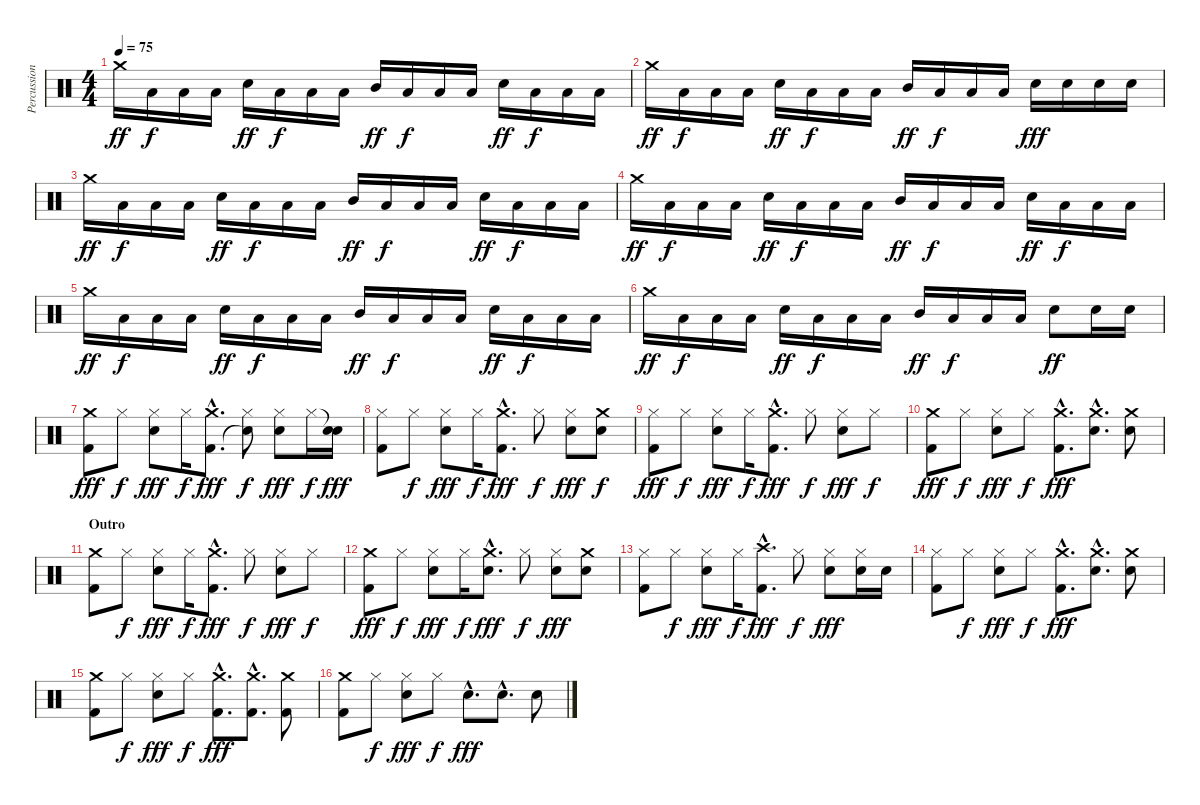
\track ("Percussion" "Percussion") {instrument percussion}
\staff {score}
\articulation defaults
\ts (4 4)
\tempo 75
\clef neutral
\ks c "Crash medium (hit)".16{dy ff} "Low Tom (hit)".16{dy f} "Low Tom (hit)".16 "Low Tom (hit)".16 "Electric Snare (hit)".16{dy ff} "Low Tom (hit)".16{dy f} "Low Tom (hit)".16 "Low Tom (hit)".16 "Mid Tom (hit)".16{dy ff} "Low Tom (hit)".16{dy f} "Low Tom (hit)".16 "Low Tom (hit)".16 "Electric Snare (hit)".16{dy ff} "Low Tom (hit)".16{dy f} "Low Tom (hit)".16 "Low Tom (hit)".16
|
"Crash medium (hit)".16{dy ff} "Low Tom (hit)".16{dy f} "Low Tom (hit)".16 "Low Tom (hit)".16 "Electric Snare (hit)".16{dy ff} "Low Tom (hit)".16{dy f} "Low Tom (hit)".16 "Low Tom (hit)".16 "Mid Tom (hit)".16{dy ff} "Low Tom (hit)".16{dy f} "Low Tom (hit)".16 "Low Tom (hit)".16 "Electric Snare (hit)".16{dy fff} "Electric Snare (hit)".16 "Electric Snare (hit)".16 "Electric Snare (hit)".16 |
"Crash medium (hit)".16{dy ff} "Low Tom (hit)".16{dy f} "Low Tom (hit)".16 "Low Tom (hit)".16 "Electric Snare (hit)".16{dy ff} "Low Tom (hit)".16{dy f} "Low Tom (hit)".16 "Low Tom (hit)".16 "Mid Tom (hit)".16{dy ff} "Low Tom (hit)".16{dy f} "Low Tom (hit)".16 "Low Tom (hit)".16 "Electric Snare (hit)".16{dy ff} "Low Tom (hit)".16{dy f} "Low Tom (hit)".16 "Low Tom (hit)".16 |
"Crash medium (hit)".16{dy ff} "Low Tom (hit)".16{dy f} "Low Tom (hit)".16 "Low Tom (hit)".16 "Electric Snare (hit)".16{dy ff} "Low Tom (hit)".16{dy f} "Low Tom (hit)".16 "Low Tom (hit)".16 "Mid Tom (hit)".16{dy ff} "Low Tom (hit)".16{dy f} "Low Tom (hit)".16 "Low Tom (hit)".16 "Electric Snare (hit)".16{dy ff} "Low Tom (hit)".16{dy f} "Low Tom (hit)".16 "Low Tom (hit)".16 |
"Crash medium (hit)".16{dy ff} "Low Tom (hit)".16{dy f} "Low Tom (hit)".16 "Low Tom (hit)".16 "Electric Snare (hit)".16{dy ff} "Low Tom (hit)".16{dy f} "Low Tom (hit)".16 "Low Tom (hit)".16 "Mid Tom (hit)".16{dy ff} "Low Tom (hit)".16{dy f} "Low Tom (hit)".16 "Low Tom (hit)".16 "Electric Snare (hit)".16{dy ff} "Low Tom (hit)".16{dy f} "Low Tom (hit)".16 "Low Tom (hit)".16 |
"Crash medium (hit)".16{dy ff} "Low Tom (hit)".16{dy f} "Low Tom (hit)".16 "Low Tom (hit)".16 "Electric Snare (hit)".16{dy ff} "Low Tom (hit)".16{dy f} "Low Tom (hit)".16 "Low Tom (hit)".16 "Mid Tom (hit)".16{dy ff} "Low Tom (hit)".16{dy f} "Low Tom (hit)".16 "Low Tom (hit)".16 "Electric Snare (hit)".8{dy ff} "Electric Snare (hit)".16 "Electric Snare (hit)".16 |
("Crash medium (hit)" "Kick (hit) 2").8{dy fff} "Hi-Hat (closed)".8{dy f} ("Hi-Hat (closed)" "Electric Snare (hit)").8{dy fff} "Hi-Hat (closed)".16{dy f} ("Crash medium (hit)" "Kick (hit) 2"{hac}).8{d dy fff} ("Hi-Hat (closed)" "Snare (hit)"{t}).8{dy f} ("Hi-Hat (closed)" "Electric Snare (hit)").8{dy fff} "Hi-Hat (closed)".16{dy f} ("Snare (hit)"{t} "Electric Snare (hit)").16{dy fff} |
("Hi-Hat (closed)" "Kick (hit) 2").8 "Hi-Hat (closed)".8{dy f} ("Hi-Hat (closed)" "Electric Snare (hit)").8{dy fff} "Hi-Hat (closed)".16{dy f} ("Crash medium (hit)"{hac} "Kick (hit) 2"{hac}).8{d dy fff} "Hi-Hat (closed)".8{dy f} ("Hi-Hat (closed)" "Electric Snare (hit)").8{dy fff} ("Crash medium (hit)" "Electric Snare (hit)").8{dy f} |
("Hi-Hat (closed)" "Kick (hit) 2").8{dy fff} "Hi-Hat (closed)".8{dy f} ("Hi-Hat (closed)" "Electric Snare (hit)").8{dy fff} "Hi-Hat (closed)".16{dy f} ("Crash medium (hit)"{hac} "Kick (hit) 2"{hac}).8{d dy fff} "Hi-Hat (closed)".8{dy f} ("Hi-Hat (closed)" "Electric Snare (hit)").8{dy fff} "Hi-Hat (closed)".8{dy f} |
("Crash medium (hit)" "Kick (hit) 2").8{dy fff} "Hi-Hat (closed)".8{dy f} ("Hi-Hat (closed)" "Electric Snare (hit)").8{dy fff} "Hi-Hat (closed)".8{dy f} ("Crash medium (hit)"{hac} "Kick (hit) 2"{hac}).8{d dy fff} ("Crash medium (hit)"{hac} "Electric Snare (hit)"{hac}).8{d} ("Crash medium (hit)" "Electric Snare (hit)").8 |
\section ("" "Outro")
("Crash medium (hit)" "Kick (hit) 2").8 "Hi-Hat (closed)".8{dy f} ("Hi-Hat (closed)" "Electric Snare (hit)").8{dy fff} "Hi-Hat (closed)".16{dy f} ("Crash medium (hit)"{hac} "Kick (hit) 2"{hac}).8{d dy fff} "Hi-Hat (closed)".8{dy f} ("Hi-Hat (closed)" "Electric Snare (hit)").8{dy fff} "Hi-Hat (closed)".8{dy f} |
("Crash medium (hit)" "Kick (hit) 2").8{dy fff} "Hi-Hat (closed)".8{dy f} ("Hi-Hat (closed)" "Electric Snare (hit)").8{dy fff} "Hi-Hat (closed)".16{dy f} ("Crash medium (hit)"{hac} "Electric Snare (hit)"{hac}).8{d dy fff} "Hi-Hat (closed)".8{dy f} ("Hi-Hat (closed)" "Electric Snare (hit)").8{dy fff} ("Crash medium (hit)" "Electric Snare (hit)").8 |
("Hi-Hat (closed)" "Kick (hit) 2").8 "Hi-Hat (closed)".8{dy f} ("Hi-Hat (closed)" "Electric Snare (hit)").8{dy fff} "Hi-Hat (closed)".16{dy f} ("Crash high (hit)"{hac} "Kick (hit) 2"{hac}).8{d dy fff} "Hi-Hat (closed)".8{dy f} ("Hi-Hat (closed)" "Electric Snare (hit)").8{dy fff} ("Hi-Hat (closed)" "Electric Snare (hit)").16 "Electric Snare (hit)".16 |
("Hi-Hat (closed)" "Kick (hit) 2").8 "Hi-Hat (closed)".8{dy f} ("Hi-Hat (closed)" "Electric Snare (hit)").8{dy fff} "Hi-Hat (closed)".8{dy f} ("Crash medium (hit)"{hac} "Kick (hit) 2"{hac}).8{d dy fff} ("Crash medium (hit)"{hac} "Electric Snare (hit)"{hac}).8{d} ("Crash medium (hit)" "Electric Snare (hit)").8 |
("Crash medium (hit)" "Kick (hit) 2").8 "Hi-Hat (closed)".8{dy f} ("Hi-Hat (closed)" "Electric Snare (hit)").8{dy fff} "Hi-Hat (closed)".8{dy f} ("Crash medium (hit)"{hac} "Kick (hit) 2"{hac}).8{d dy fff} ("Crash medium (hit)"{hac} "Kick (hit) 2"{hac}).8{d} ("Crash medium (hit)" "Kick (hit) 2").8 |
("Crash medium (hit)" "Kick (hit) 2").8 "Hi-Hat (closed)".8{dy f} ("Hi-Hat (closed)" "Electric Snare (hit)").8{dy fff} "Hi-Hat (closed)".8{dy f} "Electric Snare (hit)"{hac}.8{d dy fff} "Electric Snare (hit)"{hac}.8{d} "Electric Snare (hit)".8
